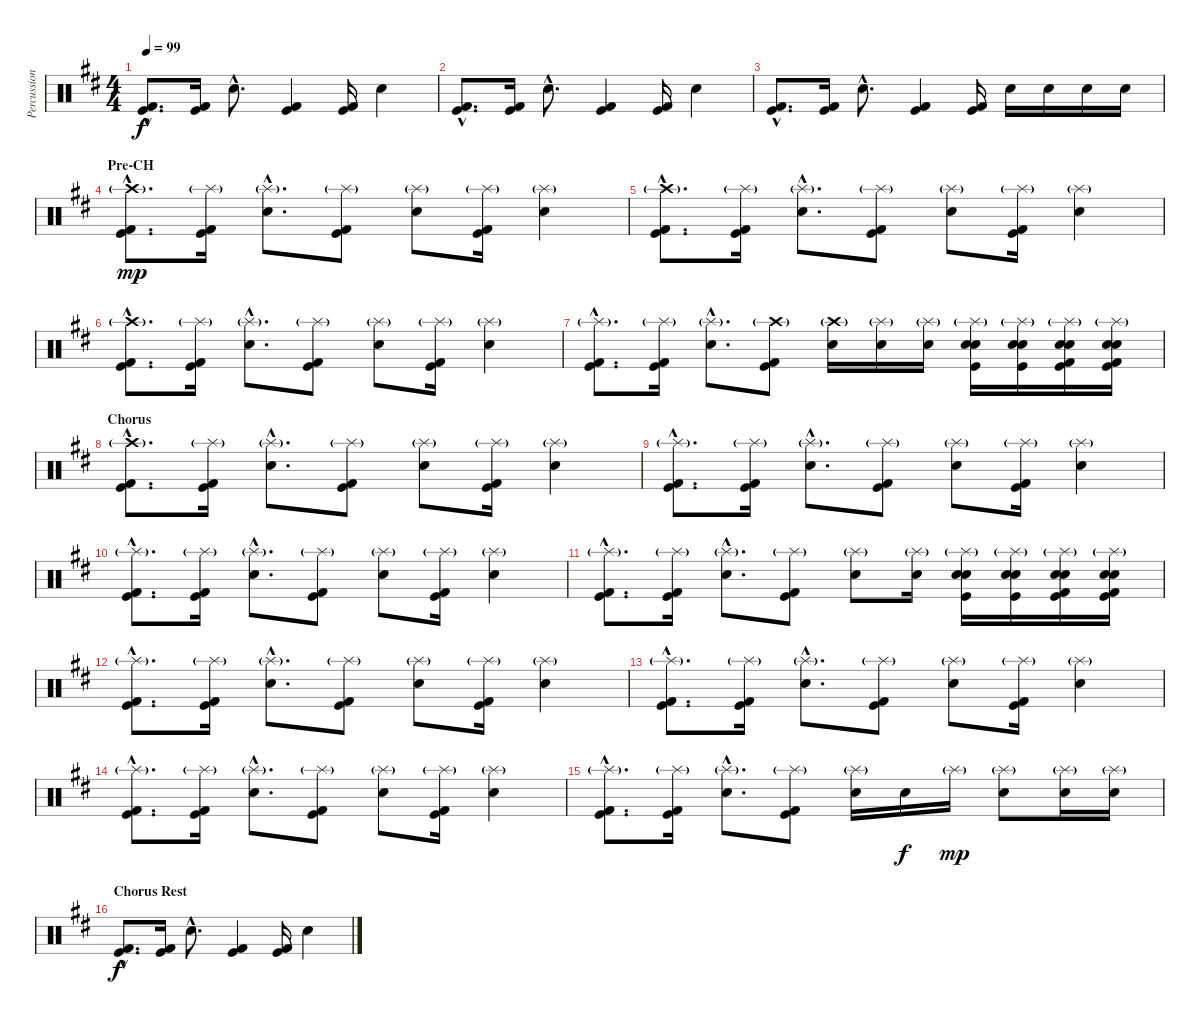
\track ("Percussion" "Percussion") {instrument percussion}
\staff {score}
\articulation defaults
\ts (4 4)
\tempo 99
\clef neutral
\ks d
("Kick (hit)"{hac} "Kick (hit) 2"{hac}).8{d dy f} ("Kick (hit)" "Kick (hit) 2").16 "Electric Snare (hit)"{hac}.8{d} ("Kick (hit)" "Kick (hit) 2").4 ("Kick (hit)" "Kick (hit) 2").16 "Electric Snare (hit)".4 |
("Kick (hit)"{hac} "Kick (hit) 2"{hac}).8{d} ("Kick (hit)" "Kick (hit) 2").16 "Electric Snare (hit)"{hac}.8{d} ("Kick (hit)" "Kick (hit) 2").4 ("Kick (hit)" "Kick (hit) 2").16 "Electric Snare (hit)".4 |
("Kick (hit)"{hac} "Kick (hit) 2"{hac}).8{d} ("Kick (hit)" "Kick (hit) 2").16 "Electric Snare (hit)"{hac}.8{d} ("Kick (hit)" "Kick (hit) 2").4 ("Kick (hit)" "Kick (hit) 2").16 "Electric Snare (hit)".16 "Electric Snare (hit)".16 "Electric Snare (hit)".16 "Electric Snare (hit)".16 |
\section ("" "Pre-CH")
("Crash high (hit)"{g hac} "Kick (hit)"{hac} "Kick (hit) 2"{hac}).8{d dy mp} ("Splash (hit)"{g} "Kick (hit)" "Kick (hit) 2").16 ("Splash (hit)"{g hac} "Electric Snare (hit)"{hac}).8{d} ("Splash (hit)"{g} "Kick (hit)" "Kick (hit) 2").8 ("Splash (hit)"{g} "Electric Snare (hit)").8 ("Splash (hit)"{g} "Kick (hit)" "Kick (hit) 2").16 ("Splash (hit)"{g} "Electric Snare (hit)").4 |
("Crash high (hit)"{g hac} "Kick (hit)"{hac} "Kick (hit) 2"{hac}).8{d} ("Splash (hit)"{g} "Kick (hit)" "Kick (hit) 2").16 ("Splash (hit)"{g hac} "Electric Snare (hit)"{hac}).8{d} ("Splash (hit)"{g} "Kick (hit)" "Kick (hit) 2").8 ("Splash (hit)"{g} "Electric Snare (hit)").8 ("Splash (hit)"{g} "Kick (hit)" "Kick (hit) 2").16 ("Splash (hit)"{g} "Electric Snare (hit)").4 |
("Crash high (hit)"{g hac} "Kick (hit)"{hac} "Kick (hit) 2"{hac}).8{d} ("Splash (hit)"{g} "Kick (hit)" "Kick (hit) 2").16 ("Splash (hit)"{g hac} "Electric Snare (hit)"{hac}).8{d} ("Splash (hit)"{g} "Kick (hit)" "Kick (hit) 2").8 ("Splash (hit)"{g} "Electric Snare (hit)").8 ("Splash (hit)"{g} "Kick (hit)" "Kick (hit) 2").16 ("Splash (hit)"{g} "Electric Snare (hit)").4 |
("Splash (hit)"{g hac} "Kick (hit)"{hac} "Kick (hit) 2"{hac}).8{d} ("Splash (hit)"{g} "Kick (hit)" "Kick (hit) 2").16 ("Splash (hit)"{g hac} "Electric Snare (hit)"{hac}).8{d} ("Crash high (hit)"{g} "Kick (hit)" "Kick (hit) 2").8 ("Crash high (hit)"{g} "Electric Snare (hit)").16 ("Splash (hit)"{g} "Electric Snare (hit)").16 ("Splash (hit)"{g} "Electric Snare (hit)").16 ("Splash (hit)"{g} "Electric Snare (hit)" "Electric Snare (hit)" "Kick (hit)").16 ("Splash (hit)"{g} "Electric Snare (hit)" "Electric Snare (hit)" "Kick (hit)").16 ("Splash (hit)"{g} "Electric Snare (hit)" "Electric Snare (hit)" "Kick (hit) 2" "Kick (hit)").16 ("Splash (hit)"{g} "Electric Snare (hit)" "Electric Snare (hit)" "Kick (hit) 2" "Kick (hit)").16 |
\section ("" "Chorus")
("Crash high (hit)"{g hac} "Kick (hit)"{hac} "Kick (hit) 2"{hac}).8{d} ("Splash (hit)"{g} "Kick (hit)" "Kick (hit) 2").16 ("Splash (hit)"{g hac} "Electric Snare (hit)"{hac}).8{d} ("Splash (hit)"{g} "Kick (hit)" "Kick (hit) 2").8 ("Splash (hit)"{g} "Electric Snare (hit)").8 ("Splash (hit)"{g} "Kick (hit)" "Kick (hit) 2").16 ("Splash (hit)"{g} "Electric Snare (hit)").4 |
("Splash (hit)"{g hac} "Kick (hit)"{hac} "Kick (hit) 2"{hac}).8{d} ("Splash (hit)"{g} "Kick (hit)" "Kick (hit) 2").16 ("Splash (hit)"{g hac} "Electric Snare (hit)"{hac}).8{d} ("Splash (hit)"{g} "Kick (hit)" "Kick (hit) 2").8 ("Splash (hit)"{g} "Electric Snare (hit)").8 ("Splash (hit)"{g} "Kick (hit)" "Kick (hit) 2").16 ("Splash (hit)"{g} "Electric Snare (hit)").4 |
("Splash (hit)"{g hac} "Kick (hit)"{hac} "Kick (hit) 2"{hac}).8{d} ("Splash (hit)"{g} "Kick (hit)" "Kick (hit) 2").16 ("Splash (hit)"{g hac} "Electric Snare (hit)"{hac}).8{d} ("Splash (hit)"{g} "Kick (hit)" "Kick (hit) 2").8 ("Splash (hit)"{g} "Electric Snare (hit)").8 ("Splash (hit)"{g} "Kick (hit)" "Kick (hit) 2").16 ("Splash (hit)"{g} "Electric Snare (hit)").4 |
("Splash (hit)"{g hac} "Kick (hit)"{hac} "Kick (hit) 2"{hac}).8{d} ("Splash (hit)"{g} "Kick (hit)" "Kick (hit) 2").16 ("Splash (hit)"{g hac} "Electric Snare (hit)"{hac}).8{d} ("Splash (hit)"{g} "Kick (hit)" "Kick (hit) 2").8 ("Splash (hit)"{g} "Electric Snare (hit)").8 ("Splash (hit)"{g} "Electric Snare (hit)").16 ("Splash (hit)"{g} "Electric Snare (hit)" "Electric Snare (hit)" "Kick (hit)").16 ("Splash (hit)"{g} "Electric Snare (hit)" "Electric Snare (hit)" "Kick (hit)").16 ("Splash (hit)"{g} "Electric Snare (hit)" "Electric Snare (hit)" "Kick (hit) 2" "Kick (hit)").16 ("Splash (hit)"{g} "Electric Snare (hit)" "Electric Snare (hit)" "Kick (hit) 2" "Kick (hit)").16 |
("Splash (hit)"{g hac} "Kick (hit)"{hac} "Kick (hit) 2"{hac}).8{d} ("Splash (hit)"{g} "Kick (hit)" "Kick (hit) 2").16 ("Splash (hit)"{g hac} "Electric Snare (hit)"{hac}).8{d} ("Splash (hit)"{g} "Kick (hit)" "Kick (hit) 2").8 ("Splash (hit)"{g} "Electric Snare (hit)").8 ("Splash (hit)"{g} "Kick (hit)" "Kick (hit) 2").16 ("Splash (hit)"{g} "Electric Snare (hit)").4 |
("Splash (hit)"{g hac} "Kick (hit)"{hac} "Kick (hit) 2"{hac}).8{d} ("Splash (hit)"{g} "Kick (hit)" "Kick (hit) 2").16 ("Splash (hit)"{g hac} "Electric Snare (hit)"{hac}).8{d} ("Splash (hit)"{g} "Kick (hit)" "Kick (hit) 2").8 ("Splash (hit)"{g} "Electric Snare (hit)").8 ("Splash (hit)"{g} "Kick (hit)" "Kick (hit) 2").16 ("Splash (hit)"{g} "Electric Snare (hit)").4 |
("Splash (hit)"{g hac} "Kick (hit)"{hac} "Kick (hit) 2"{hac}).8{d} ("Splash (hit)"{g} "Kick (hit)" "Kick (hit) 2").16 ("Splash (hit)"{g hac} "Electric Snare (hit)"{hac}).8{d} ("Splash (hit)"{g} "Kick (hit)" "Kick (hit) 2").8 ("Splash (hit)"{g} "Electric Snare (hit)").8 ("Splash (hit)"{g} "Kick (hit)" "Kick (hit) 2").16 ("Splash (hit)"{g} "Electric Snare (hit)").4 |
("Splash (hit)"{g hac} "Kick (hit)"{hac} "Kick (hit) 2"{hac}).8{d} ("Splash (hit)"{g} "Kick (hit)" "Kick (hit) 2").16 ("Splash (hit)"{g hac} "Electric Snare (hit)"{hac}).8{d} ("Splash (hit)"{g} "Kick (hit)" "Kick (hit) 2").8 ("Splash (hit)"{g} "Electric Snare (hit)").16 "Electric Snare (hit)".16{dy f} "Splash (hit)"{g}.16{dy mp} ("Splash (hit)"{g} "Electric Snare (hit)").8 ("Splash (hit)"{g} "Electric Snare (hit)").16 ("Splash (hit)"{g} "Electric Snare (hit)").16 |
\section ("" "Chorus Rest")
("Kick (hit)"{hac} "Kick (hit) 2"{hac}).8{d dy f} ("Kick (hit)" "Kick (hit) 2").16 "Electric Snare (hit)"{hac}.8{d} ("Kick (hit)" "Kick (hit) 2").4 ("Kick (hit)" "Kick (hit) 2").16 "Electric Snare (hit)".4
